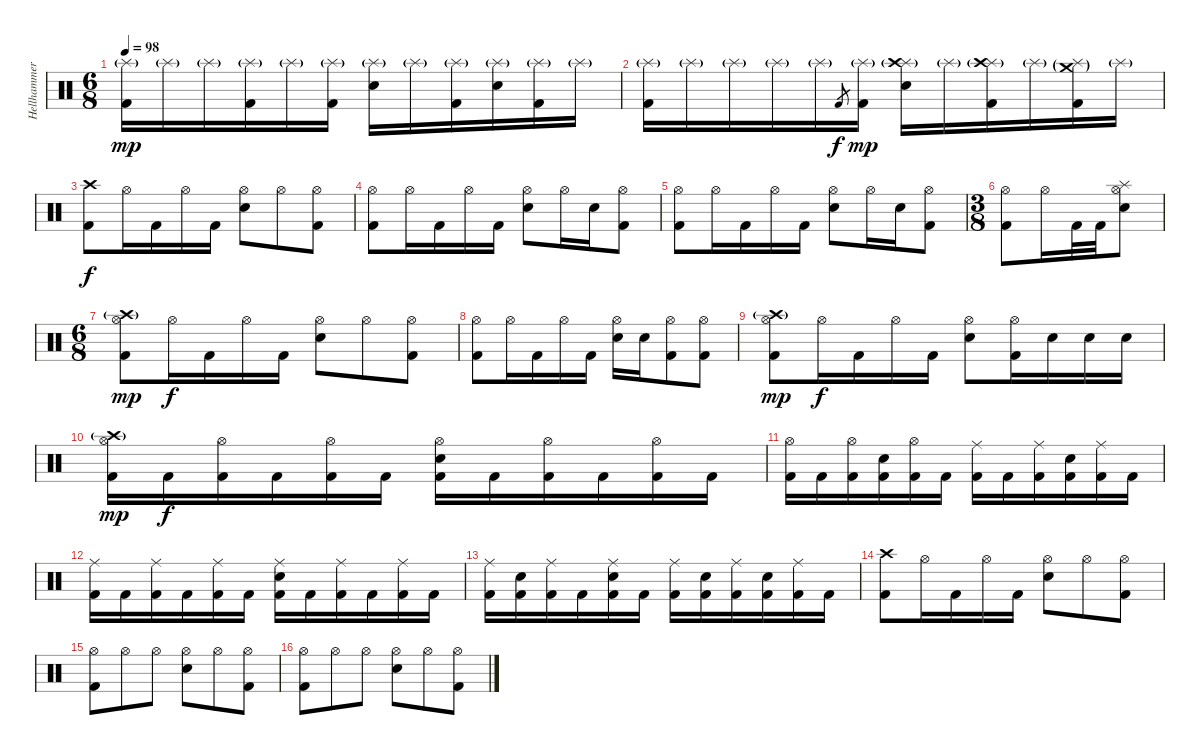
\track ("Hellhammer (Drums)" "Hellhammer") {instrument percussion}
\staff {score}
\articulation defaults
\ts (6 8)
\tempo 98
\clef neutral
\ks c
("Kick (hit) 2" "Splash (hit)"{g}).16{dy mp} "Splash (hit)"{g}.16 "Splash (hit)"{g}.16 ("Kick (hit) 2" "Splash (hit)"{g}).16 "Splash (hit)"{g}.16 ("Kick (hit) 2" "Splash (hit)"{g}).16 ("Electric Snare (hit)" "Splash (hit)"{g}).16 "Splash (hit)"{g}.16 ("Kick (hit) 2" "Splash (hit)"{g}).16 ("Electric Snare (hit)" "Splash (hit)"{g}).16 ("Kick (hit) 2" "Splash (hit)"{g}).16 "Splash (hit)"{g}.16 |
("Kick (hit) 2" "Splash (hit)"{g}).16 "Splash (hit)"{g}.16 "Splash (hit)"{g}.16 "Splash (hit)"{g}.16 "Splash (hit)"{g}.16 "Kick (hit) 2".8{gr dy f} ("Kick (hit) 2" "Splash (hit)"{g}).16{dy mp} ("Electric Snare (hit)" "Splash (hit)"{g} "Crash high (hit)").16 "Splash (hit)"{g}.16 ("Kick (hit) 2" "Splash (hit)"{g} "Crash high (hit)"{g}).16 "Splash (hit)"{g}.16 ("Kick (hit) 2" "Splash (hit)"{g} "Crash medium (hit)"{g}).16 "Splash (hit)"{g}.16 |
("Kick (hit) 2" "Crash high (hit)").8{dy f} "Hi-Hat (open)".16 "Kick (hit) 2".16 "Hi-Hat (open)".16 "Kick (hit) 2".16 ("Electric Snare (hit)" "Hi-Hat (open)").8 "Hi-Hat (open)".8 ("Kick (hit) 2" "Hi-Hat (open)").8 |
("Kick (hit) 2" "Hi-Hat (open)").8 "Hi-Hat (open)".16 "Kick (hit) 2".16 "Hi-Hat (open)".16 "Kick (hit) 2".16 ("Electric Snare (hit)" "Hi-Hat (open)").8 "Hi-Hat (open)".16 "Electric Snare (hit)".16 ("Kick (hit) 2" "Hi-Hat (open)").8 |
("Kick (hit) 2" "Hi-Hat (open)").8 "Hi-Hat (open)".16 "Kick (hit) 2".16 "Hi-Hat (open)".16 "Kick (hit) 2".16 ("Electric Snare (hit)" "Hi-Hat (open)").8 "Hi-Hat (open)".16 "Electric Snare (hit)".16 ("Kick (hit) 2" "Hi-Hat (open)").8 |
\ts (3 8)
("Kick (hit) 2" "Hi-Hat (open)").8 "Hi-Hat (open)".16 "Kick (hit) 2".32 "Kick (hit) 2".32 ("Electric Snare (hit)" "Hi-Hat (open)" "Splash (hit)").8 |
\ts (6 8)
("Kick (hit) 2" "Hi-Hat (open)" "Crash high (hit)"{g}).8{dy mp} "Hi-Hat (open)".16{dy f} "Kick (hit) 2".16 "Hi-Hat (open)".16 "Kick (hit) 2".16 ("Electric Snare (hit)" "Hi-Hat (open)").8 "Hi-Hat (open)".8 ("Kick (hit) 2" "Hi-Hat (open)").8 |
("Kick (hit) 2" "Hi-Hat (open)").8 "Hi-Hat (open)".16 "Kick (hit) 2".16 "Hi-Hat (open)".16 "Kick (hit) 2".16 ("Electric Snare (hit)" "Hi-Hat (open)").16 "Electric Snare (hit)".16 ("Kick (hit) 2" "Hi-Hat (open)").8 ("Kick (hit) 2" "Hi-Hat (open)").8 |
("Kick (hit) 2" "Hi-Hat (open)" "Crash high (hit)"{g}).8{dy mp} "Hi-Hat (open)".16{dy f} "Kick (hit) 2".16 "Hi-Hat (open)".16 "Kick (hit) 2".16 ("Electric Snare (hit)" "Hi-Hat (open)").8 ("Kick (hit) 2" "Hi-Hat (open)").16 "Electric Snare (hit)".16 "Electric Snare (hit)".16 "Electric Snare (hit)".16 |
("Kick (hit) 2" "Hi-Hat (open)" "Crash high (hit)"{g}).16{dy mp} "Kick (hit) 2".16{dy f} ("Kick (hit) 2" "Hi-Hat (open)").16 "Kick (hit) 2".16 ("Kick (hit) 2" "Hi-Hat (open)").16 "Kick (hit) 2".16 ("Kick (hit) 2" "Electric Snare (hit)" "Hi-Hat (open)").16 "Kick (hit) 2".16 ("Kick (hit) 2" "Hi-Hat (open)").16 "Kick (hit) 2".16 ("Kick (hit) 2" "Hi-Hat (open)").16 "Kick (hit) 2".16 |
("Kick (hit) 2" "Hi-Hat (open)").16 "Kick (hit) 2".16 ("Kick (hit) 2" "Hi-Hat (open)").16 ("Kick (hit) 2" "Electric Snare (hit)").16 ("Kick (hit) 2" "Hi-Hat (open)").16 "Kick (hit) 2".16 ("Kick (hit) 2" "Ride (middle)").16 "Kick (hit) 2".16 ("Kick (hit) 2" "Ride (middle)").16 ("Kick (hit) 2" "Electric Snare (hit)").16 ("Kick (hit) 2" "Ride (middle)").16 "Kick (hit) 2".16 |
("Kick (hit) 2" "Ride (middle)").16 "Kick (hit) 2".16 ("Kick (hit) 2" "Ride (middle)").16 "Kick (hit) 2".16 ("Kick (hit) 2" "Ride (middle)").16 "Kick (hit) 2".16 ("Kick (hit) 2" "Electric Snare (hit)" "Ride (middle)").16 "Kick (hit) 2".16 ("Kick (hit) 2" "Ride (middle)").16 "Kick (hit) 2".16 ("Kick (hit) 2" "Ride (middle)").16 "Kick (hit) 2".16 |
("Kick (hit) 2" "Ride (middle)").16 ("Kick (hit) 2" "Electric Snare (hit)").16 ("Kick (hit) 2" "Ride (middle)").16 "Kick (hit) 2".16 ("Kick (hit) 2" "Electric Snare (hit)" "Ride (middle)").16 "Kick (hit) 2".16 ("Kick (hit) 2" "Ride (middle)").16 ("Kick (hit) 2" "Electric Snare (hit)").16 ("Kick (hit) 2" "Ride (middle)").16 ("Kick (hit) 2" "Electric Snare (hit)").16 ("Kick (hit) 2" "Ride (middle)").16 "Kick (hit) 2".16 |
("Kick (hit) 2" "Crash high (hit)").8 "Hi-Hat (open)".16 "Kick (hit) 2".16 "Hi-Hat (open)".16 "Kick (hit) 2".16 ("Electric Snare (hit)" "Hi-Hat (open)").8 "Hi-Hat (open)".8 ("Kick (hit) 2" "Hi-Hat (open)").8 |
("Kick (hit) 2" "Hi-Hat (open)").8 "Hi-Hat (open)".8 "Hi-Hat (open)".8 ("Electric Snare (hit)" "Hi-Hat (open)").8 "Hi-Hat (open)".8 ("Kick (hit) 2" "Hi-Hat (open)").8 |
("Kick (hit) 2" "Hi-Hat (open)").8 "Hi-Hat (open)".8 "Hi-Hat (open)".8 ("Electric Snare (hit)" "Hi-Hat (open)").8 "Hi-Hat (open)".8 ("Kick (hit) 2" "Hi-Hat (open)").8
